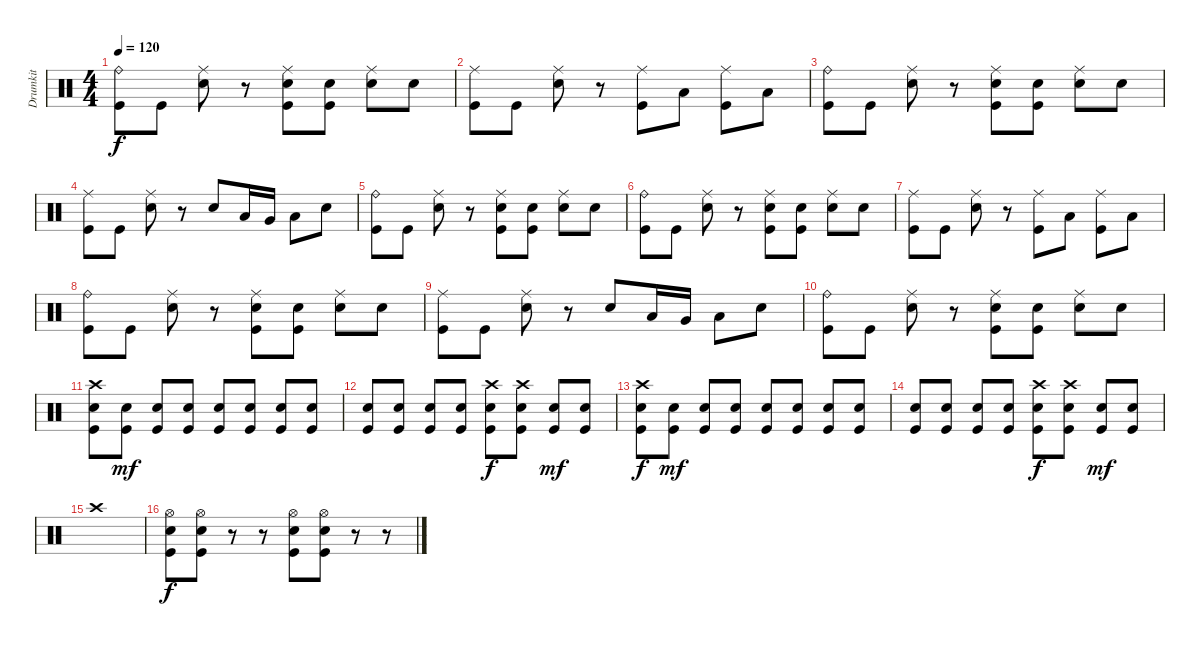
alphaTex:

\track ("Drumkit" "Drumkit") {instrument percussion}
\staff {score}
\articulation defaults
\ts (4 4)
\tempo 120
\clef neutral
\ks c
("Kick (hit)" "Ride (bell)").8{dy f} "Kick (hit)".8 ("Snare (hit) 2" "Ride (middle)").8 r.8 ("Kick (hit)" "Ride (middle)" "Snare (hit) 2").8 ("Kick (hit)" "Snare (hit) 2").8 ("Snare (hit) 2" "Ride (middle)").8 "Snare (hit) 2".8 |
("Kick (hit)" "Ride (middle)").8 "Kick (hit)".8 ("Snare (hit) 2" "Ride (middle)").8 r.8 ("Ride (middle)" "Kick (hit)").8 "Low Tom (hit)".8 ("Kick (hit)" "Ride (middle)").8 "Low Tom (hit)".8 |
("Kick (hit)" "Ride (bell)").8 "Kick (hit)".8 ("Snare (hit) 2" "Ride (middle)").8 r.8 ("Kick (hit)" "Ride (middle)" "Snare (hit) 2").8 ("Kick (hit)" "Snare (hit) 2").8 ("Snare (hit) 2" "Ride (middle)").8 "Snare (hit) 2".8 |
("Kick (hit)" "Ride (middle)").8 "Kick (hit)".8 ("Snare (hit) 2" "Ride (middle)").8 r.8 "Snare (hit) 2".8 "Low Tom (hit)".16 "Very Low Tom (hit)".16 "Low Floor Tom (hit)".8 "Snare (hit) 2".8 |
("Kick (hit)" "Ride (bell)").8 "Kick (hit)".8 ("Snare (hit) 2" "Ride (middle)").8 r.8 ("Kick (hit)" "Ride (middle)" "Snare (hit) 2").8 ("Kick (hit)" "Snare (hit) 2").8 ("Snare (hit) 2" "Ride (middle)").8 "Snare (hit) 2".8 |
("Kick (hit)" "Ride (bell)").8 "Kick (hit)".8 ("Snare (hit) 2" "Ride (middle)").8 r.8 ("Kick (hit)" "Ride (middle)" "Snare (hit) 2").8 ("Kick (hit)" "Snare (hit) 2").8 ("Snare (hit) 2" "Ride (middle)").8 "Snare (hit) 2".8 |
("Kick (hit)" "Ride (middle)").8 "Kick (hit)".8 ("Snare (hit) 2" "Ride (middle)").8 r.8 ("Ride (middle)" "Kick (hit)").8 "Low Tom (hit)".8 ("Kick (hit)" "Ride (middle)").8 "Low Tom (hit)".8 |
("Kick (hit)" "Ride (bell)").8 "Kick (hit)".8 ("Snare (hit) 2" "Ride (middle)").8 r.8 ("Kick (hit)" "Ride (middle)" "Snare (hit) 2").8 ("Kick (hit)" "Snare (hit) 2").8 ("Snare (hit) 2" "Ride (middle)").8 "Snare (hit) 2".8 |
("Kick (hit)" "Ride (middle)").8 "Kick (hit)".8 ("Snare (hit) 2" "Ride (middle)").8 r.8 "Snare (hit) 2".8 "Low Tom (hit)".16 "Very Low Tom (hit)".16 "Low Floor Tom (hit)".8 "Snare (hit) 2".8 |
("Kick (hit)" "Ride (bell)").8 "Kick (hit)".8 ("Snare (hit) 2" "Ride (middle)").8 r.8 ("Kick (hit)" "Ride (middle)" "Snare (hit) 2").8 ("Kick (hit)" "Snare (hit) 2").8 ("Snare (hit) 2" "Ride (middle)").8 "Snare (hit) 2".8 |
("Kick (hit)" "Snare (hit) 2" "Crash high (hit)").8 ("Kick (hit)" "Snare (hit) 2").8{dy mf} ("Kick (hit)" "Snare (hit) 2").8 ("Kick (hit)" "Snare (hit) 2").8 ("Kick (hit)" "Snare (hit) 2").8 ("Kick (hit)" "Snare (hit) 2").8 ("Kick (hit)" "Snare (hit) 2").8 ("Kick (hit)" "Snare (hit) 2").8 |
("Kick (hit)" "Snare (hit) 2").8 ("Kick (hit)" "Snare (hit) 2").8 ("Kick (hit)" "Snare (hit) 2").8 ("Kick (hit)" "Snare (hit) 2").8 ("Kick (hit)" "Snare (hit) 2" "Crash high (hit)").8{dy f} ("Kick (hit)" "Snare (hit) 2" "Crash high (hit)").8 ("Kick (hit)" "Snare (hit) 2").8{dy mf} ("Kick (hit)" "Snare (hit) 2").8 |
("Kick (hit)" "Snare (hit) 2" "Crash high (hit)").8{dy f} ("Kick (hit)" "Snare (hit) 2").8{dy mf} ("Kick (hit)" "Snare (hit) 2").8 ("Kick (hit)" "Snare (hit) 2").8 ("Kick (hit)" "Snare (hit) 2").8 ("Kick (hit)" "Snare (hit) 2").8 ("Kick (hit)" "Snare (hit) 2").8 ("Kick (hit)" "Snare (hit) 2").8 |
("Kick (hit)" "Snare (hit) 2").8 ("Kick (hit)" "Snare (hit) 2").8 ("Kick (hit)" "Snare (hit) 2").8 ("Kick (hit)" "Snare (hit) 2").8 ("Kick (hit)" "Snare (hit) 2" "Crash high (hit)").8{dy f} ("Kick (hit)" "Snare (hit) 2" "Crash high (hit)").8 ("Kick (hit)" "Snare (hit) 2").8{dy mf} ("Kick (hit)" "Snare (hit) 2").8 |
"Crash high (hit)".1 |
("Kick (hit)" "Snare (hit) 2" "Hi-Hat (open)").8{dy f} ("Kick (hit)" "Snare (hit) 2" "Hi-Hat (open)").8 r.8 r.8 ("Kick (hit)" "Snare (hit) 2" "Hi-Hat (open)").8 ("Kick (hit)" "Snare (hit) 2" "Hi-Hat (open)").8 r.8 r.8
